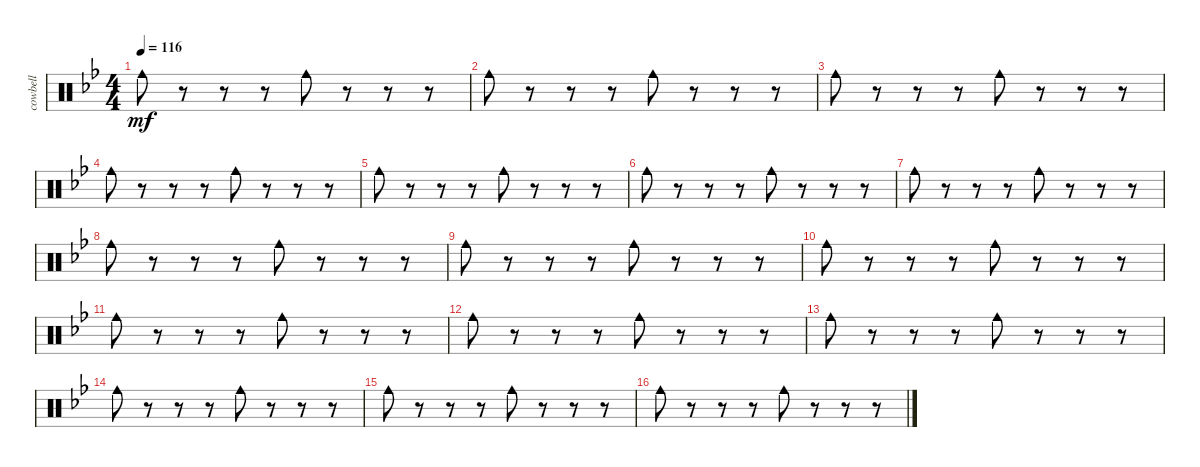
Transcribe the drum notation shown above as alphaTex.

\track ("cowbell" "cowbell") {instrument percussion}
\staff {score}
\articulation defaults
\ts (4 4)
\tempo 116
\clef neutral
\ks bb "Cowbell medium (hit)".8{dy mf}
r.8 r.8 r.8 "Cowbell medium (hit)".8 r.8 r.8 r.8 |
"Cowbell medium (hit)".8 r.8 r.8 r.8 "Cowbell medium (hit)".8 r.8 r.8 r.8 |
"Cowbell medium (hit)".8 r.8 r.8 r.8 "Cowbell medium (hit)".8 r.8 r.8 r.8 |
"Cowbell medium (hit)".8 r.8 r.8 r.8 "Cowbell medium (hit)".8 r.8 r.8 r.8 |
"Cowbell medium (hit)".8 r.8 r.8 r.8 "Cowbell medium (hit)".8 r.8 r.8 r.8 |
"Cowbell medium (hit)".8 r.8 r.8 r.8 "Cowbell medium (hit)".8 r.8 r.8 r.8 |
"Cowbell medium (hit)".8 r.8 r.8 r.8 "Cowbell medium (hit)".8 r.8 r.8 r.8 |
"Cowbell medium (hit)".8 r.8 r.8 r.8 "Cowbell medium (hit)".8 r.8 r.8 r.8 |
"Cowbell medium (hit)".8 r.8 r.8 r.8 "Cowbell medium (hit)".8 r.8 r.8 r.8 |
"Cowbell medium (hit)".8 r.8 r.8 r.8 "Cowbell medium (hit)".8 r.8 r.8 r.8 |
"Cowbell medium (hit)".8 r.8 r.8 r.8 "Cowbell medium (hit)".8 r.8 r.8 r.8 |
"Cowbell medium (hit)".8 r.8 r.8 r.8 "Cowbell medium (hit)".8 r.8 r.8 r.8 |
"Cowbell medium (hit)".8 r.8 r.8 r.8 "Cowbell medium (hit)".8 r.8 r.8 r.8 |
"Cowbell medium (hit)".8 r.8 r.8 r.8 "Cowbell medium (hit)".8 r.8 r.8 r.8 |
"Cowbell medium (hit)".8 r.8 r.8 r.8 "Cowbell medium (hit)".8 r.8 r.8 r.8 |
"Cowbell medium (hit)".8 r.8 r.8 r.8 "Cowbell medium (hit)".8 r.8 r.8 r.8
